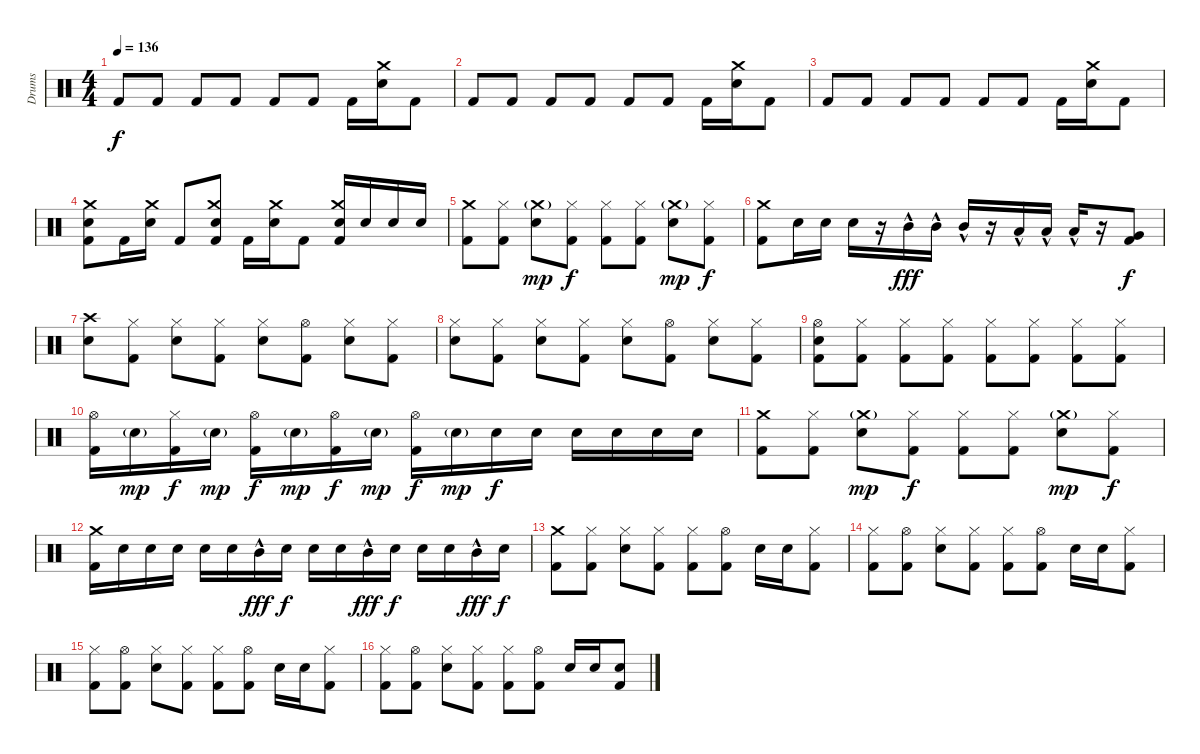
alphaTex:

\track ("Drums" "Drums") {instrument percussion}
\staff {score}
\articulation defaults
\ts (4 4)
\tempo 136
\clef neutral
\ks c "Kick (hit) 2".8{dy f} "Kick (hit) 2".8 "Kick (hit) 2".8 "Kick (hit) 2".8 "Kick (hit) 2".8 "Kick (hit) 2".8 "Kick (hit) 2".16
("Crash medium (hit)" "Electric Snare (hit)").16 "Kick (hit) 2".8 |
"Kick (hit) 2".8 "Kick (hit) 2".8 "Kick (hit) 2".8 "Kick (hit) 2".8 "Kick (hit) 2".8 "Kick (hit) 2".8 "Kick (hit) 2".16 ("Crash medium (hit)" "Electric Snare (hit)").16 "Kick (hit) 2".8 |
"Kick (hit) 2".8 "Kick (hit) 2".8 "Kick (hit) 2".8 "Kick (hit) 2".8 "Kick (hit) 2".8 "Kick (hit) 2".8 "Kick (hit) 2".16 ("Crash medium (hit)" "Electric Snare (hit)").16 "Kick (hit) 2".8 |
("Crash medium (hit)" "Electric Snare (hit)" "Kick (hit) 2").8 "Kick (hit) 2".16 ("Crash medium (hit)" "Electric Snare (hit)").16 "Kick (hit) 2".8 ("Crash medium (hit)" "Electric Snare (hit)" "Kick (hit) 2").8 "Kick (hit) 2".16 ("Crash medium (hit)" "Electric Snare (hit)").16 "Kick (hit) 2".8 ("Crash medium (hit)" "Electric Snare (hit)" "Kick (hit) 2").16 "Electric Snare (hit)".16 "Electric Snare (hit)".16 "Electric Snare (hit)".16 |
("Crash medium (hit)" "Kick (hit) 2").8 ("Hi-Hat (closed)" "Kick (hit) 2").8 ("Crash medium (hit)"{g} "Electric Snare (hit)").8{dy mp} ("Hi-Hat (closed)" "Kick (hit) 2").8{dy f} ("Hi-Hat (closed)" "Kick (hit) 2").8 ("Hi-Hat (closed)" "Kick (hit) 2").8 ("Crash medium (hit)"{g} "Electric Snare (hit)").8{dy mp} ("Hi-Hat (closed)" "Kick (hit) 2").8{dy f} |
("Crash medium (hit)" "Kick (hit) 2").8 "Electric Snare (hit)".16 "Electric Snare (hit)".16 "Electric Snare (hit)".16 r.16 "Mid Tom (hit)"{hac}.16{dy fff} "Mid Tom (hit)"{hac}.16 "Mid Tom (hit)"{hac}.16 r.16 "Low Tom (hit)"{hac}.16 "Low Tom (hit)"{hac}.16 "Low Tom (hit)"{hac}.16 r.16 ("Very Low Tom (hit)" "Kick (hit) 2").8{dy f} |
("Crash high (hit)" "Electric Snare (hit)").8 ("Hi-Hat (closed)" "Kick (hit) 2").8 ("Hi-Hat (closed)" "Electric Snare (hit)").8 ("Hi-Hat (closed)" "Kick (hit) 2").8 ("Hi-Hat (closed)" "Electric Snare (hit)").8 ("Hi-Hat (open)" "Kick (hit) 2").8 ("Hi-Hat (closed)" "Electric Snare (hit)").8 ("Hi-Hat (closed)" "Kick (hit) 2").8 |
("Hi-Hat (closed)" "Electric Snare (hit)").8 ("Hi-Hat (closed)" "Kick (hit) 2").8 ("Hi-Hat (closed)" "Electric Snare (hit)").8 ("Hi-Hat (closed)" "Kick (hit) 2").8 ("Hi-Hat (closed)" "Electric Snare (hit)").8 ("Hi-Hat (open)" "Kick (hit) 2").8 ("Hi-Hat (closed)" "Electric Snare (hit)").8 ("Hi-Hat (closed)" "Kick (hit) 2").8 |
("Hi-Hat (open)" "Electric Snare (hit)" "Kick (hit) 2").8 ("Hi-Hat (closed)" "Kick (hit) 2").8 ("Hi-Hat (closed)" "Kick (hit) 2").8 ("Hi-Hat (closed)" "Kick (hit) 2").8 ("Hi-Hat (closed)" "Kick (hit) 2").8 ("Hi-Hat (closed)" "Kick (hit) 2").8 ("Hi-Hat (closed)" "Kick (hit) 2").8 ("Hi-Hat (closed)" "Kick (hit) 2").8 |
("Hi-Hat (open)" "Kick (hit) 2").16 "Electric Snare (hit)"{g}.16{dy mp} ("Hi-Hat (closed)" "Kick (hit) 2").16{dy f} "Electric Snare (hit)"{g}.16{dy mp} ("Hi-Hat (open)" "Kick (hit) 2").16{dy f} "Electric Snare (hit)"{g}.16{dy mp} ("Hi-Hat (open)" "Kick (hit) 2").16{dy f} "Electric Snare (hit)"{g}.16{dy mp} ("Hi-Hat (open)" "Kick (hit) 2").16{dy f} "Electric Snare (hit)"{g}.16{dy mp} "Electric Snare (hit)".16{dy f} "Electric Snare (hit)".16 "Electric Snare (hit)".16 "Electric Snare (hit)".16 "Electric Snare (hit)".16 "Electric Snare (hit)".16 |
("Crash medium (hit)" "Kick (hit) 2").8 ("Hi-Hat (closed)" "Kick (hit) 2").8 ("Crash medium (hit)"{g} "Electric Snare (hit)").8{dy mp} ("Hi-Hat (closed)" "Kick (hit) 2").8{dy f} ("Hi-Hat (closed)" "Kick (hit) 2").8 ("Hi-Hat (closed)" "Kick (hit) 2").8 ("Crash medium (hit)"{g} "Electric Snare (hit)").8{dy mp} ("Hi-Hat (closed)" "Kick (hit) 2").8{dy f} |
("Crash medium (hit)" "Kick (hit) 2").16 "Electric Snare (hit)".16 "Electric Snare (hit)".16 "Electric Snare (hit)".16 "Electric Snare (hit)".16 "Electric Snare (hit)".16 "Mid Tom (hit)"{hac}.16{dy fff} "Electric Snare (hit)".16{dy f} "Electric Snare (hit)".16 "Electric Snare (hit)".16 "Mid Tom (hit)"{hac}.16{dy fff} "Electric Snare (hit)".16{dy f} "Electric Snare (hit)".16 "Electric Snare (hit)".16 "Mid Tom (hit)"{hac}.16{dy fff} "Electric Snare (hit)".16{dy f} |
("Crash medium (hit)" "Kick (hit) 2").8 ("Hi-Hat (closed)" "Kick (hit) 2").8 ("Hi-Hat (closed)" "Electric Snare (hit)").8 ("Hi-Hat (closed)" "Kick (hit) 2").8 ("Hi-Hat (closed)" "Kick (hit) 2").8 ("Hi-Hat (open)" "Kick (hit) 2").8 "Electric Snare (hit)".16 "Electric Snare (hit)".16 ("Hi-Hat (closed)" "Kick (hit) 2").8 |
("Hi-Hat (closed)" "Kick (hit) 2").8 ("Hi-Hat (open)" "Kick (hit) 2").8 ("Hi-Hat (closed)" "Electric Snare (hit)").8 ("Hi-Hat (closed)" "Kick (hit) 2").8 ("Hi-Hat (closed)" "Kick (hit) 2").8 ("Hi-Hat (open)" "Kick (hit) 2").8 "Electric Snare (hit)".16 "Electric Snare (hit)".16 ("Hi-Hat (closed)" "Kick (hit) 2").8 |
("Hi-Hat (closed)" "Kick (hit) 2").8 ("Hi-Hat (open)" "Kick (hit) 2").8 ("Hi-Hat (closed)" "Electric Snare (hit)").8 ("Hi-Hat (closed)" "Kick (hit) 2").8 ("Hi-Hat (closed)" "Kick (hit) 2").8 ("Hi-Hat (open)" "Kick (hit) 2").8 "Electric Snare (hit)".16 "Electric Snare (hit)".16 ("Hi-Hat (closed)" "Kick (hit) 2").8 |
("Hi-Hat (closed)" "Kick (hit) 2").8 ("Hi-Hat (open)" "Kick (hit) 2").8 ("Hi-Hat (closed)" "Electric Snare (hit)").8 ("Hi-Hat (closed)" "Kick (hit) 2").8 ("Hi-Hat (closed)" "Kick (hit) 2").8 ("Hi-Hat (open)" "Kick (hit) 2").8 "Electric Snare (hit)".16 "Electric Snare (hit)".16 ("Electric Snare (hit)" "Kick (hit) 2").8
